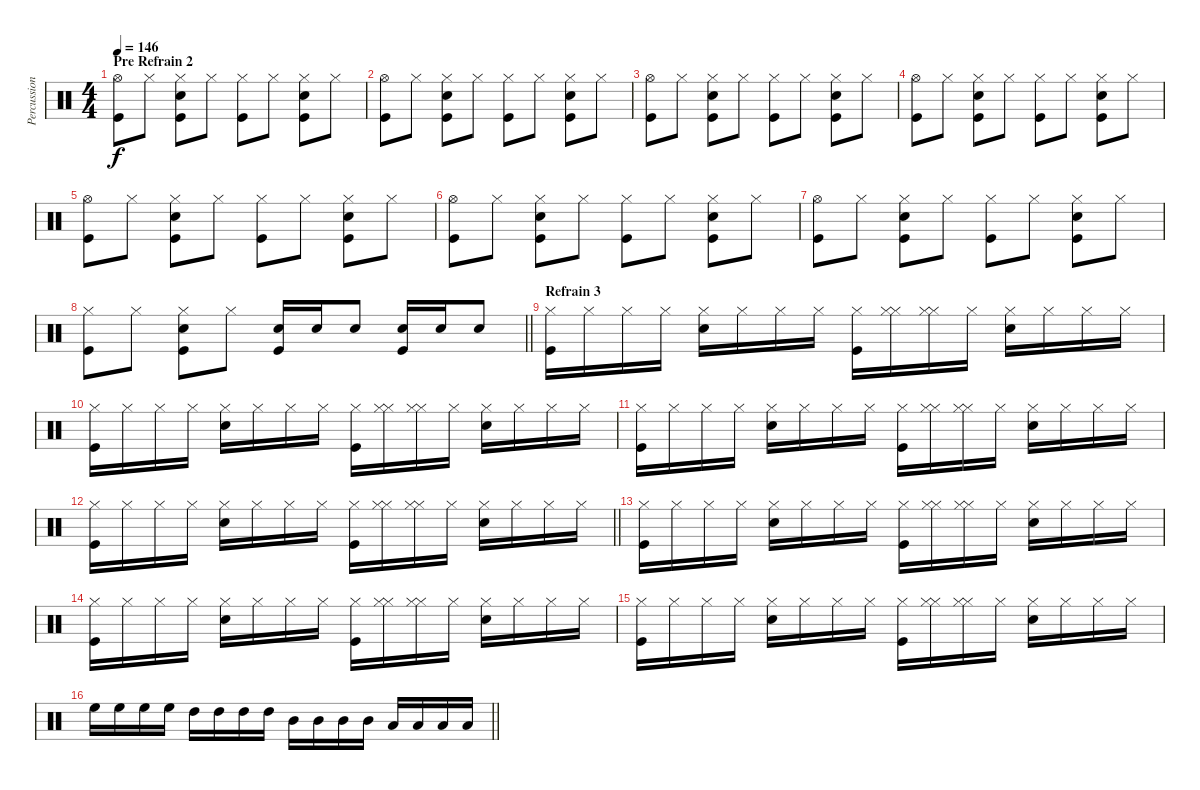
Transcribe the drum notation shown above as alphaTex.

\track ("Percussions" "Percussion") {instrument percussion}
\staff {score}
\articulation defaults
\ts (4 4)
\section ("" "Pre Refrain 2")
\tempo 146
\clef neutral
\ks c
("Hi-Hat (open)" "Kick (hit)").8{dy f} "Hi-Hat (closed)".8 ("Hi-Hat (closed)" "Snare (hit) 2" "Kick (hit)").8 "Hi-Hat (closed)".8 ("Hi-Hat (closed)" "Kick (hit)").8 "Hi-Hat (closed)".8 ("Hi-Hat (closed)" "Kick (hit)" "Snare (hit) 2").8 "Hi-Hat (closed)".8 |
("Hi-Hat (open)" "Kick (hit)").8 "Hi-Hat (closed)".8 ("Hi-Hat (closed)" "Snare (hit) 2" "Kick (hit)").8 "Hi-Hat (closed)".8 ("Hi-Hat (closed)" "Kick (hit)").8 "Hi-Hat (closed)".8 ("Hi-Hat (closed)" "Kick (hit)" "Snare (hit) 2").8 "Hi-Hat (closed)".8 |
("Hi-Hat (open)" "Kick (hit)").8 "Hi-Hat (closed)".8 ("Hi-Hat (closed)" "Snare (hit) 2" "Kick (hit)").8 "Hi-Hat (closed)".8 ("Hi-Hat (closed)" "Kick (hit)").8 "Hi-Hat (closed)".8 ("Hi-Hat (closed)" "Kick (hit)" "Snare (hit) 2").8 "Hi-Hat (closed)".8 |
("Hi-Hat (open)" "Kick (hit)").8 "Hi-Hat (closed)".8 ("Hi-Hat (closed)" "Snare (hit) 2" "Kick (hit)").8 "Hi-Hat (closed)".8 ("Hi-Hat (closed)" "Kick (hit)").8 "Hi-Hat (closed)".8 ("Hi-Hat (closed)" "Kick (hit)" "Snare (hit) 2").8 "Hi-Hat (closed)".8 |
("Hi-Hat (open)" "Kick (hit)").8 "Hi-Hat (closed)".8 ("Hi-Hat (closed)" "Snare (hit) 2" "Kick (hit)").8 "Hi-Hat (closed)".8 ("Hi-Hat (closed)" "Kick (hit)").8 "Hi-Hat (closed)".8 ("Hi-Hat (closed)" "Kick (hit)" "Snare (hit) 2").8 "Hi-Hat (closed)".8 |
("Hi-Hat (open)" "Kick (hit)").8 "Hi-Hat (closed)".8 ("Hi-Hat (closed)" "Snare (hit) 2" "Kick (hit)").8 "Hi-Hat (closed)".8 ("Hi-Hat (closed)" "Kick (hit)").8 "Hi-Hat (closed)".8 ("Hi-Hat (closed)" "Kick (hit)" "Snare (hit) 2").8 "Hi-Hat (closed)".8 |
("Hi-Hat (open)" "Kick (hit)").8 "Hi-Hat (closed)".8 ("Hi-Hat (closed)" "Snare (hit) 2" "Kick (hit)").8 "Hi-Hat (closed)".8 ("Hi-Hat (closed)" "Kick (hit)").8 "Hi-Hat (closed)".8 ("Hi-Hat (closed)" "Kick (hit)" "Snare (hit) 2").8 "Hi-Hat (closed)".8 |
\barLineRight lightlight
("Hi-Hat (closed)" "Kick (hit)").8 "Hi-Hat (closed)".8 ("Hi-Hat (closed)" "Kick (hit)" "Snare (hit) 2").8 "Hi-Hat (closed)".8 ("Snare (hit) 2" "Kick (hit)").16 "Snare (hit) 2".16 "Snare (hit) 2".8 ("Snare (hit) 2" "Kick (hit)").16 "Snare (hit) 2".16 "Snare (hit) 2".8 |
\section ("" "Refrain 3")
("Hi-Hat (closed)" "Kick (hit)").16 "Hi-Hat (closed)".16 "Hi-Hat (closed)".16 "Hi-Hat (closed)".16 ("Hi-Hat (closed)" "Snare (hit) 2").16 "Hi-Hat (closed)".16 "Hi-Hat (closed)".16 "Hi-Hat (closed)".16 ("Hi-Hat (closed)" "Kick (hit)").16 ("Hi-Hat (closed)" "Hi-Hat (closed)").16 ("Hi-Hat (closed)" "Hi-Hat (closed)").16 "Hi-Hat (closed)".16 ("Hi-Hat (closed)" "Snare (hit) 2").16 "Hi-Hat (closed)".16 "Hi-Hat (closed)".16 "Hi-Hat (closed)".16 |
("Hi-Hat (closed)" "Kick (hit)").16 "Hi-Hat (closed)".16 "Hi-Hat (closed)".16 "Hi-Hat (closed)".16 ("Hi-Hat (closed)" "Snare (hit) 2").16 "Hi-Hat (closed)".16 "Hi-Hat (closed)".16 "Hi-Hat (closed)".16 ("Hi-Hat (closed)" "Kick (hit)").16 ("Hi-Hat (closed)" "Hi-Hat (closed)").16 ("Hi-Hat (closed)" "Hi-Hat (closed)").16 "Hi-Hat (closed)".16 ("Hi-Hat (closed)" "Snare (hit) 2").16 "Hi-Hat (closed)".16 "Hi-Hat (closed)".16 "Hi-Hat (closed)".16 |
("Hi-Hat (closed)" "Kick (hit)").16 "Hi-Hat (closed)".16 "Hi-Hat (closed)".16 "Hi-Hat (closed)".16 ("Hi-Hat (closed)" "Snare (hit) 2").16 "Hi-Hat (closed)".16 "Hi-Hat (closed)".16 "Hi-Hat (closed)".16 ("Hi-Hat (closed)" "Kick (hit)").16 ("Hi-Hat (closed)" "Hi-Hat (closed)").16 ("Hi-Hat (closed)" "Hi-Hat (closed)").16 "Hi-Hat (closed)".16 ("Hi-Hat (closed)" "Snare (hit) 2").16 "Hi-Hat (closed)".16 "Hi-Hat (closed)".16 "Hi-Hat (closed)".16 |
\barLineRight lightlight
("Hi-Hat (closed)" "Kick (hit)").16 "Hi-Hat (closed)".16 "Hi-Hat (closed)".16 "Hi-Hat (closed)".16 ("Hi-Hat (closed)" "Snare (hit) 2").16 "Hi-Hat (closed)".16 "Hi-Hat (closed)".16 "Hi-Hat (closed)".16 ("Hi-Hat (closed)" "Kick (hit)").16 ("Hi-Hat (closed)" "Hi-Hat (closed)").16 ("Hi-Hat (closed)" "Hi-Hat (closed)").16 "Hi-Hat (closed)".16 ("Hi-Hat (closed)" "Snare (hit) 2").16 "Hi-Hat (closed)".16 "Hi-Hat (closed)".16 "Hi-Hat (closed)".16 |
("Hi-Hat (closed)" "Kick (hit)").16 "Hi-Hat (closed)".16 "Hi-Hat (closed)".16 "Hi-Hat (closed)".16 ("Hi-Hat (closed)" "Snare (hit) 2").16 "Hi-Hat (closed)".16 "Hi-Hat (closed)".16 "Hi-Hat (closed)".16 ("Hi-Hat (closed)" "Kick (hit)").16 ("Hi-Hat (closed)" "Hi-Hat (closed)").16 ("Hi-Hat (closed)" "Hi-Hat (closed)").16 "Hi-Hat (closed)".16 ("Hi-Hat (closed)" "Snare (hit) 2").16 "Hi-Hat (closed)".16 "Hi-Hat (closed)".16 "Hi-Hat (closed)".16 |
("Hi-Hat (closed)" "Kick (hit)").16 "Hi-Hat (closed)".16 "Hi-Hat (closed)".16 "Hi-Hat (closed)".16 ("Hi-Hat (closed)" "Snare (hit) 2").16 "Hi-Hat (closed)".16 "Hi-Hat (closed)".16 "Hi-Hat (closed)".16 ("Hi-Hat (closed)" "Kick (hit)").16 ("Hi-Hat (closed)" "Hi-Hat (closed)").16 ("Hi-Hat (closed)" "Hi-Hat (closed)").16 "Hi-Hat (closed)".16 ("Hi-Hat (closed)" "Snare (hit) 2").16 "Hi-Hat (closed)".16 "Hi-Hat (closed)".16 "Hi-Hat (closed)".16 |
("Hi-Hat (closed)" "Kick (hit)").16 "Hi-Hat (closed)".16 "Hi-Hat (closed)".16 "Hi-Hat (closed)".16 ("Hi-Hat (closed)" "Snare (hit) 2").16 "Hi-Hat (closed)".16 "Hi-Hat (closed)".16 "Hi-Hat (closed)".16 ("Hi-Hat (closed)" "Kick (hit)").16 ("Hi-Hat (closed)" "Hi-Hat (closed)").16 ("Hi-Hat (closed)" "Hi-Hat (closed)").16 "Hi-Hat (closed)".16 ("Hi-Hat (closed)" "Snare (hit) 2").16 "Hi-Hat (closed)".16 "Hi-Hat (closed)".16 "Hi-Hat (closed)".16 |
\barLineRight lightlight "High Floor Tom (hit)".16 "High Floor Tom (hit)".16 "High Floor Tom (hit)".16 "High Floor Tom (hit)".16 "High Tom (hit)".16 "High Tom (hit)".16 "High Tom (hit)".16 "High Tom (hit)".16 "Mid Tom (hit)".16 "Mid Tom (hit)".16 "Mid Tom (hit)".16 "Mid Tom (hit)".16 "Low Tom (hit)".16 "Low Tom (hit)".16 "Low Tom (hit)".16 "Low Tom (hit)".16
